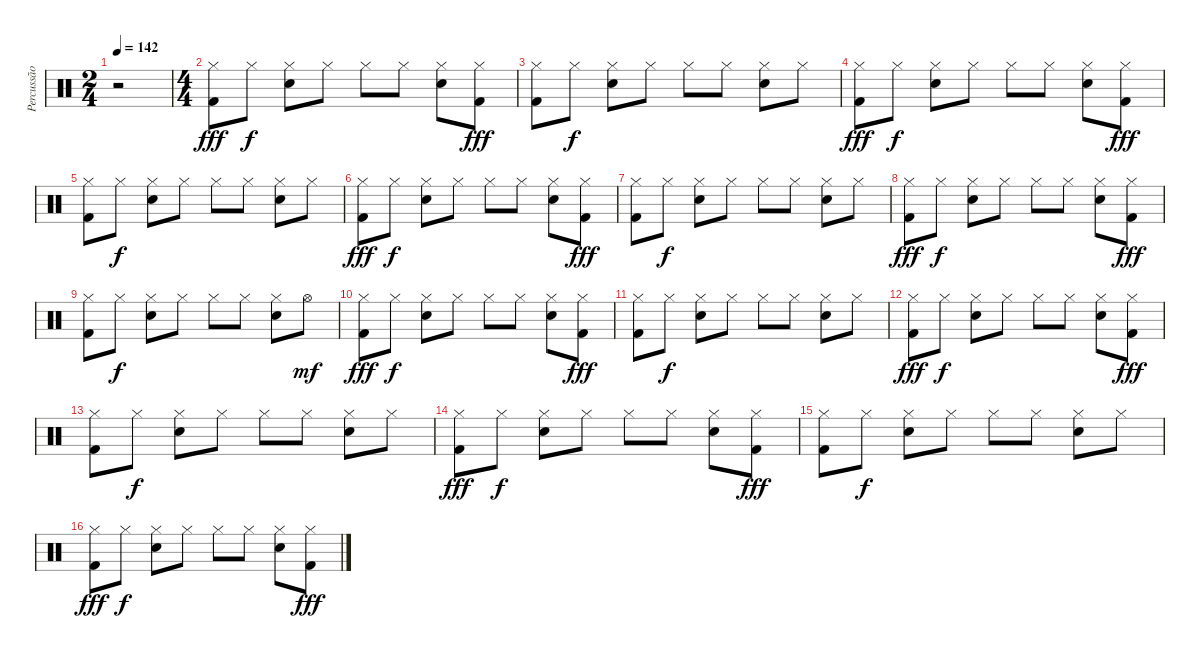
\track ("Percussão" "Percussão") {instrument percussion}
\staff {score}
\articulation defaults
\ts (2 4)
\tempo 142
\clef neutral
\ks c
r.2{dy fff} |
\ts (4 4)
("Hi-Hat (closed)" "Kick (hit) 2").8 "Hi-Hat (closed)".8{dy f} ("Hi-Hat (closed)" "Electric Snare (hit)").8 "Hi-Hat (closed)".8 "Hi-Hat (closed)".8 "Hi-Hat (closed)".8 ("Hi-Hat (closed)" "Electric Snare (hit)").8 ("Hi-Hat (closed)" "Kick (hit) 2").8{dy fff} |
("Hi-Hat (closed)" "Kick (hit) 2").8 "Hi-Hat (closed)".8{dy f} ("Hi-Hat (closed)" "Electric Snare (hit)").8 "Hi-Hat (closed)".8 "Hi-Hat (closed)".8 "Hi-Hat (closed)".8 ("Hi-Hat (closed)" "Electric Snare (hit)").8 "Hi-Hat (closed)".8 |
("Hi-Hat (closed)" "Kick (hit) 2").8{dy fff} "Hi-Hat (closed)".8{dy f} ("Hi-Hat (closed)" "Electric Snare (hit)").8 "Hi-Hat (closed)".8 "Hi-Hat (closed)".8 "Hi-Hat (closed)".8 ("Hi-Hat (closed)" "Electric Snare (hit)").8 ("Hi-Hat (closed)" "Kick (hit) 2").8{dy fff} |
("Hi-Hat (closed)" "Kick (hit) 2").8 "Hi-Hat (closed)".8{dy f} ("Hi-Hat (closed)" "Electric Snare (hit)").8 "Hi-Hat (closed)".8 "Hi-Hat (closed)".8 "Hi-Hat (closed)".8 ("Hi-Hat (closed)" "Electric Snare (hit)").8 "Hi-Hat (closed)".8 |
("Hi-Hat (closed)" "Kick (hit) 2").8{dy fff} "Hi-Hat (closed)".8{dy f} ("Hi-Hat (closed)" "Electric Snare (hit)").8 "Hi-Hat (closed)".8 "Hi-Hat (closed)".8 "Hi-Hat (closed)".8 ("Hi-Hat (closed)" "Electric Snare (hit)").8 ("Hi-Hat (closed)" "Kick (hit) 2").8{dy fff} |
("Hi-Hat (closed)" "Kick (hit) 2").8 "Hi-Hat (closed)".8{dy f} ("Hi-Hat (closed)" "Electric Snare (hit)").8 "Hi-Hat (closed)".8 "Hi-Hat (closed)".8 "Hi-Hat (closed)".8 ("Hi-Hat (closed)" "Electric Snare (hit)").8 "Hi-Hat (closed)".8 |
("Hi-Hat (closed)" "Kick (hit) 2").8{dy fff} "Hi-Hat (closed)".8{dy f} ("Hi-Hat (closed)" "Electric Snare (hit)").8 "Hi-Hat (closed)".8 "Hi-Hat (closed)".8 "Hi-Hat (closed)".8 ("Hi-Hat (closed)" "Electric Snare (hit)").8 ("Hi-Hat (closed)" "Kick (hit) 2").8{dy fff} |
("Hi-Hat (closed)" "Kick (hit) 2").8 "Hi-Hat (closed)".8{dy f} ("Hi-Hat (closed)" "Electric Snare (hit)").8 "Hi-Hat (closed)".8 "Hi-Hat (closed)".8 "Hi-Hat (closed)".8 ("Hi-Hat (closed)" "Electric Snare (hit)").8 "Hi-Hat (open)".8{dy mf} |
("Hi-Hat (closed)" "Kick (hit) 2").8{dy fff} "Hi-Hat (closed)".8{dy f} ("Hi-Hat (closed)" "Electric Snare (hit)").8 "Hi-Hat (closed)".8 "Hi-Hat (closed)".8 "Hi-Hat (closed)".8 ("Hi-Hat (closed)" "Electric Snare (hit)").8 ("Hi-Hat (closed)" "Kick (hit) 2").8{dy fff} |
("Hi-Hat (closed)" "Kick (hit) 2").8 "Hi-Hat (closed)".8{dy f} ("Hi-Hat (closed)" "Electric Snare (hit)").8 "Hi-Hat (closed)".8 "Hi-Hat (closed)".8 "Hi-Hat (closed)".8 ("Hi-Hat (closed)" "Electric Snare (hit)").8 "Hi-Hat (closed)".8 |
("Hi-Hat (closed)" "Kick (hit) 2").8{dy fff} "Hi-Hat (closed)".8{dy f} ("Hi-Hat (closed)" "Electric Snare (hit)").8 "Hi-Hat (closed)".8 "Hi-Hat (closed)".8 "Hi-Hat (closed)".8 ("Hi-Hat (closed)" "Electric Snare (hit)").8 ("Hi-Hat (closed)" "Kick (hit) 2").8{dy fff} |
("Hi-Hat (closed)" "Kick (hit) 2").8 "Hi-Hat (closed)".8{dy f} ("Hi-Hat (closed)" "Electric Snare (hit)").8 "Hi-Hat (closed)".8 "Hi-Hat (closed)".8 "Hi-Hat (closed)".8 ("Hi-Hat (closed)" "Electric Snare (hit)").8 "Hi-Hat (closed)".8 |
("Hi-Hat (closed)" "Kick (hit) 2").8{dy fff} "Hi-Hat (closed)".8{dy f} ("Hi-Hat (closed)" "Electric Snare (hit)").8 "Hi-Hat (closed)".8 "Hi-Hat (closed)".8 "Hi-Hat (closed)".8 ("Hi-Hat (closed)" "Electric Snare (hit)").8 ("Hi-Hat (closed)" "Kick (hit) 2").8{dy fff} |
("Hi-Hat (closed)" "Kick (hit) 2").8 "Hi-Hat (closed)".8{dy f} ("Hi-Hat (closed)" "Electric Snare (hit)").8 "Hi-Hat (closed)".8 "Hi-Hat (closed)".8 "Hi-Hat (closed)".8 ("Hi-Hat (closed)" "Electric Snare (hit)").8 "Hi-Hat (closed)".8 |
("Hi-Hat (closed)" "Kick (hit) 2").8{dy fff} "Hi-Hat (closed)".8{dy f} ("Hi-Hat (closed)" "Electric Snare (hit)").8 "Hi-Hat (closed)".8 "Hi-Hat (closed)".8 "Hi-Hat (closed)".8 ("Hi-Hat (closed)" "Electric Snare (hit)").8 ("Hi-Hat (closed)" "Kick (hit) 2").8{dy fff}
